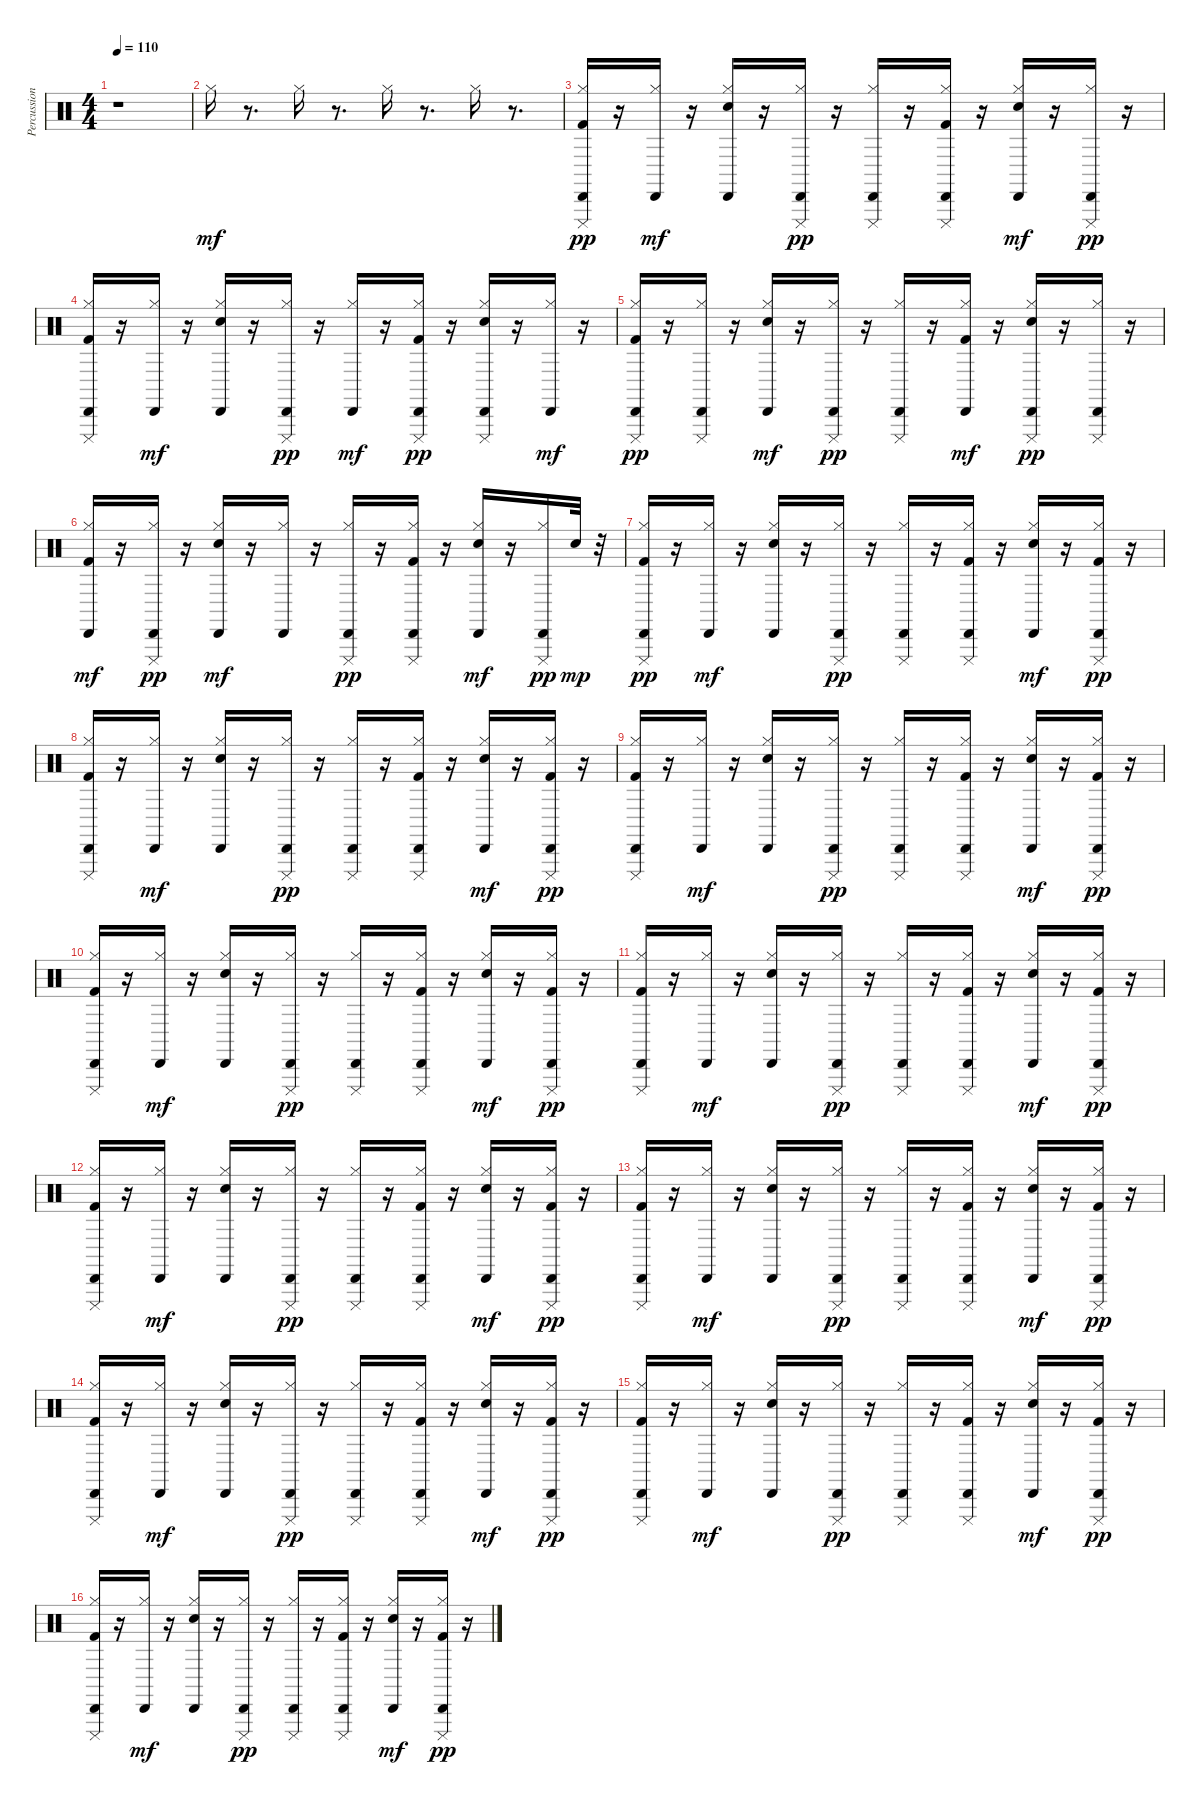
\track ("Percussion" "Percussion") {instrument percussion}
\staff {score}
\articulation defaults
\ts (4 4)
\tempo 110
\clef neutral
\ks c
r.1{dy mf} |
"Hi-Hat (closed)".16 r.8{d} "Hi-Hat (closed)".16 r.8{d} "Hi-Hat (closed)".16 r.8{d} "Hi-Hat (closed)".16 r.8{d} |
("Kick (hit) 2" "Hi-Hat (closed)" "Cabasa (hit)" "Cuica (mute)").16{dy pp} r.16 ("Hi-Hat (closed)" "Cabasa (hit)").16{dy mf} r.16 ("Electric Snare (hit)" "Hi-Hat (closed)" "Cabasa (hit)").16 r.16 ("Hi-Hat (closed)" "Cabasa (hit)" "Cuica (mute)").16{dy pp} r.16 ("Hi-Hat (closed)" "Cabasa (hit)" "Cuica (mute)").16 r.16 ("Kick (hit) 2" "Hi-Hat (closed)" "Cabasa (hit)" "Cuica (mute)").16 r.16 ("Electric Snare (hit)" "Hi-Hat (closed)" "Cabasa (hit)").16{dy mf} r.16 ("Hi-Hat (closed)" "Cabasa (hit)" "Cuica (mute)").16{dy pp} r.16 |
("Kick (hit) 2" "Hi-Hat (closed)" "Cabasa (hit)" "Cuica (mute)").16 r.16 ("Hi-Hat (closed)" "Cabasa (hit)").16{dy mf} r.16 ("Electric Snare (hit)" "Hi-Hat (closed)" "Cabasa (hit)").16 r.16 ("Hi-Hat (closed)" "Cabasa (hit)" "Cuica (mute)").16{dy pp} r.16 ("Hi-Hat (closed)" "Cabasa (hit)").16{dy mf} r.16 ("Kick (hit) 2" "Hi-Hat (closed)" "Cabasa (hit)" "Cuica (mute)").16{dy pp} r.16 ("Electric Snare (hit)" "Hi-Hat (closed)" "Cabasa (hit)" "Cuica (mute)").16 r.16 ("Hi-Hat (closed)" "Cabasa (hit)").16{dy mf} r.16 |
("Kick (hit) 2" "Hi-Hat (closed)" "Cabasa (hit)" "Cuica (mute)").16{dy pp} r.16 ("Hi-Hat (closed)" "Cabasa (hit)" "Cuica (mute)").16 r.16 ("Electric Snare (hit)" "Hi-Hat (closed)" "Cabasa (hit)").16{dy mf} r.16 ("Hi-Hat (closed)" "Cabasa (hit)" "Cuica (mute)").16{dy pp} r.16 ("Hi-Hat (closed)" "Cabasa (hit)" "Cuica (mute)").16 r.16 ("Kick (hit) 2" "Hi-Hat (closed)" "Cabasa (hit)").16{dy mf} r.16 ("Electric Snare (hit)" "Hi-Hat (closed)" "Cabasa (hit)" "Cuica (mute)").16{dy pp} r.16 ("Hi-Hat (closed)" "Cabasa (hit)" "Cuica (mute)").16 r.16 |
("Kick (hit) 2" "Hi-Hat (closed)" "Cabasa (hit)").16{dy mf} r.16 ("Hi-Hat (closed)" "Cabasa (hit)" "Cuica (mute)").16{dy pp} r.16 ("Electric Snare (hit)" "Hi-Hat (closed)" "Cabasa (hit)").16{dy mf} r.16 ("Hi-Hat (closed)" "Cabasa (hit)").16 r.16 ("Hi-Hat (closed)" "Cabasa (hit)" "Cuica (mute)").16{dy pp} r.16 ("Kick (hit) 2" "Hi-Hat (closed)" "Cabasa (hit)" "Cuica (mute)").16 r.16 ("Electric Snare (hit)" "Hi-Hat (closed)" "Cabasa (hit)").16{dy mf} r.16 ("Hi-Hat (closed)" "Cabasa (hit)" "Cuica (mute)").16{dy pp} "Electric Snare (hit)".32{dy mp} r.32 |
("Kick (hit) 2" "Hi-Hat (closed)" "Cabasa (hit)" "Cuica (mute)").16{dy pp} r.16 ("Hi-Hat (closed)" "Cabasa (hit)").16{dy mf} r.16 ("Electric Snare (hit)" "Hi-Hat (closed)" "Cabasa (hit)").16 r.16 ("Hi-Hat (closed)" "Cabasa (hit)" "Cuica (mute)").16{dy pp} r.16 ("Hi-Hat (closed)" "Cabasa (hit)" "Cuica (mute)").16 r.16 ("Kick (hit) 2" "Hi-Hat (closed)" "Cabasa (hit)" "Cuica (mute)").16 r.16 ("Electric Snare (hit)" "Hi-Hat (closed)" "Cabasa (hit)").16{dy mf} r.16 ("Kick (hit) 2" "Hi-Hat (closed)" "Cabasa (hit)" "Cuica (mute)").16{dy pp} r.16 |
("Kick (hit) 2" "Hi-Hat (closed)" "Cabasa (hit)" "Cuica (mute)").16 r.16 ("Hi-Hat (closed)" "Cabasa (hit)").16{dy mf} r.16 ("Electric Snare (hit)" "Hi-Hat (closed)" "Cabasa (hit)").16 r.16 ("Hi-Hat (closed)" "Cabasa (hit)" "Cuica (mute)").16{dy pp} r.16 ("Hi-Hat (closed)" "Cabasa (hit)" "Cuica (mute)").16 r.16 ("Kick (hit) 2" "Hi-Hat (closed)" "Cabasa (hit)" "Cuica (mute)").16 r.16 ("Electric Snare (hit)" "Hi-Hat (closed)" "Cabasa (hit)").16{dy mf} r.16 ("Kick (hit) 2" "Hi-Hat (closed)" "Cabasa (hit)" "Cuica (mute)").16{dy pp} r.16 |
("Kick (hit) 2" "Hi-Hat (closed)" "Cabasa (hit)" "Cuica (mute)").16 r.16 ("Hi-Hat (closed)" "Cabasa (hit)").16{dy mf} r.16 ("Electric Snare (hit)" "Hi-Hat (closed)" "Cabasa (hit)").16 r.16 ("Hi-Hat (closed)" "Cabasa (hit)" "Cuica (mute)").16{dy pp} r.16 ("Hi-Hat (closed)" "Cabasa (hit)" "Cuica (mute)").16 r.16 ("Kick (hit) 2" "Hi-Hat (closed)" "Cabasa (hit)" "Cuica (mute)").16 r.16 ("Electric Snare (hit)" "Hi-Hat (closed)" "Cabasa (hit)").16{dy mf} r.16 ("Kick (hit) 2" "Hi-Hat (closed)" "Cabasa (hit)" "Cuica (mute)").16{dy pp} r.16 |
("Kick (hit) 2" "Hi-Hat (closed)" "Cabasa (hit)" "Cuica (mute)").16 r.16 ("Hi-Hat (closed)" "Cabasa (hit)").16{dy mf} r.16 ("Electric Snare (hit)" "Hi-Hat (closed)" "Cabasa (hit)").16 r.16 ("Hi-Hat (closed)" "Cabasa (hit)" "Cuica (mute)").16{dy pp} r.16 ("Hi-Hat (closed)" "Cabasa (hit)" "Cuica (mute)").16 r.16 ("Kick (hit) 2" "Hi-Hat (closed)" "Cabasa (hit)" "Cuica (mute)").16 r.16 ("Electric Snare (hit)" "Hi-Hat (closed)" "Cabasa (hit)").16{dy mf} r.16 ("Kick (hit) 2" "Hi-Hat (closed)" "Cabasa (hit)" "Cuica (mute)").16{dy pp} r.16 |
("Kick (hit) 2" "Hi-Hat (closed)" "Cabasa (hit)" "Cuica (mute)").16 r.16 ("Hi-Hat (closed)" "Cabasa (hit)").16{dy mf} r.16 ("Electric Snare (hit)" "Hi-Hat (closed)" "Cabasa (hit)").16 r.16 ("Hi-Hat (closed)" "Cabasa (hit)" "Cuica (mute)").16{dy pp} r.16 ("Hi-Hat (closed)" "Cabasa (hit)" "Cuica (mute)").16 r.16 ("Kick (hit) 2" "Hi-Hat (closed)" "Cabasa (hit)" "Cuica (mute)").16 r.16 ("Electric Snare (hit)" "Hi-Hat (closed)" "Cabasa (hit)").16{dy mf} r.16 ("Kick (hit) 2" "Hi-Hat (closed)" "Cabasa (hit)" "Cuica (mute)").16{dy pp} r.16 |
("Kick (hit) 2" "Hi-Hat (closed)" "Cabasa (hit)" "Cuica (mute)").16 r.16 ("Hi-Hat (closed)" "Cabasa (hit)").16{dy mf} r.16 ("Electric Snare (hit)" "Hi-Hat (closed)" "Cabasa (hit)").16 r.16 ("Hi-Hat (closed)" "Cabasa (hit)" "Cuica (mute)").16{dy pp} r.16 ("Hi-Hat (closed)" "Cabasa (hit)" "Cuica (mute)").16 r.16 ("Kick (hit) 2" "Hi-Hat (closed)" "Cabasa (hit)" "Cuica (mute)").16 r.16 ("Electric Snare (hit)" "Hi-Hat (closed)" "Cabasa (hit)").16{dy mf} r.16 ("Kick (hit) 2" "Hi-Hat (closed)" "Cabasa (hit)" "Cuica (mute)").16{dy pp} r.16 |
("Kick (hit) 2" "Hi-Hat (closed)" "Cabasa (hit)" "Cuica (mute)").16 r.16 ("Hi-Hat (closed)" "Cabasa (hit)").16{dy mf} r.16 ("Electric Snare (hit)" "Hi-Hat (closed)" "Cabasa (hit)").16 r.16 ("Hi-Hat (closed)" "Cabasa (hit)" "Cuica (mute)").16{dy pp} r.16 ("Hi-Hat (closed)" "Cabasa (hit)" "Cuica (mute)").16 r.16 ("Kick (hit) 2" "Hi-Hat (closed)" "Cabasa (hit)" "Cuica (mute)").16 r.16 ("Electric Snare (hit)" "Hi-Hat (closed)" "Cabasa (hit)").16{dy mf} r.16 ("Kick (hit) 2" "Hi-Hat (closed)" "Cabasa (hit)" "Cuica (mute)").16{dy pp} r.16 |
("Kick (hit) 2" "Hi-Hat (closed)" "Cabasa (hit)" "Cuica (mute)").16 r.16 ("Hi-Hat (closed)" "Cabasa (hit)").16{dy mf} r.16 ("Electric Snare (hit)" "Hi-Hat (closed)" "Cabasa (hit)").16 r.16 ("Hi-Hat (closed)" "Cabasa (hit)" "Cuica (mute)").16{dy pp} r.16 ("Hi-Hat (closed)" "Cabasa (hit)" "Cuica (mute)").16 r.16 ("Kick (hit) 2" "Hi-Hat (closed)" "Cabasa (hit)" "Cuica (mute)").16 r.16 ("Electric Snare (hit)" "Hi-Hat (closed)" "Cabasa (hit)").16{dy mf} r.16 ("Kick (hit) 2" "Hi-Hat (closed)" "Cabasa (hit)" "Cuica (mute)").16{dy pp} r.16 |
("Kick (hit) 2" "Hi-Hat (closed)" "Cabasa (hit)" "Cuica (mute)").16 r.16 ("Hi-Hat (closed)" "Cabasa (hit)").16{dy mf} r.16 ("Electric Snare (hit)" "Hi-Hat (closed)" "Cabasa (hit)").16 r.16 ("Hi-Hat (closed)" "Cabasa (hit)" "Cuica (mute)").16{dy pp} r.16 ("Hi-Hat (closed)" "Cabasa (hit)" "Cuica (mute)").16 r.16 ("Kick (hit) 2" "Hi-Hat (closed)" "Cabasa (hit)" "Cuica (mute)").16 r.16 ("Electric Snare (hit)" "Hi-Hat (closed)" "Cabasa (hit)").16{dy mf} r.16 ("Kick (hit) 2" "Hi-Hat (closed)" "Cabasa (hit)" "Cuica (mute)").16{dy pp} r.16 |
("Kick (hit) 2" "Hi-Hat (closed)" "Cabasa (hit)" "Cuica (mute)").16 r.16 ("Hi-Hat (closed)" "Cabasa (hit)").16{dy mf} r.16 ("Electric Snare (hit)" "Hi-Hat (closed)" "Cabasa (hit)").16 r.16 ("Hi-Hat (closed)" "Cabasa (hit)" "Cuica (mute)").16{dy pp} r.16 ("Hi-Hat (closed)" "Cabasa (hit)" "Cuica (mute)").16 r.16 ("Kick (hit) 2" "Hi-Hat (closed)" "Cabasa (hit)" "Cuica (mute)").16 r.16 ("Electric Snare (hit)" "Hi-Hat (closed)" "Cabasa (hit)").16{dy mf} r.16 ("Kick (hit) 2" "Hi-Hat (closed)" "Cabasa (hit)" "Cuica (mute)").16{dy pp} r.16
